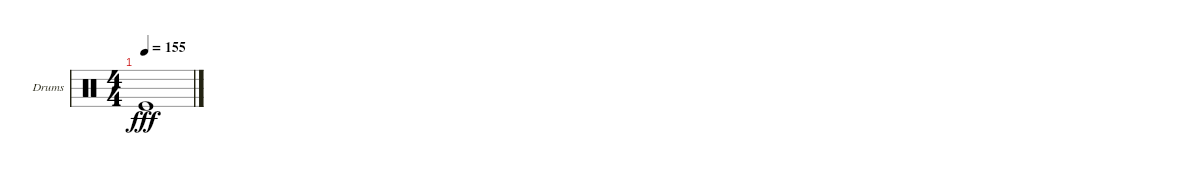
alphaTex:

\bracketExtendMode groupsimilarinstruments
\firstSystemTrackNameOrientation horizontal
\otherSystemsTrackNameOrientation horizontal
\track ("Е. Кулаков" "Drums") {instrument percussion}
\staff {score}
\articulation defaults
\ts (4 4)
\tempo 155
\clef neutral
\ks c "Kick (hit)".1{dy fff}
